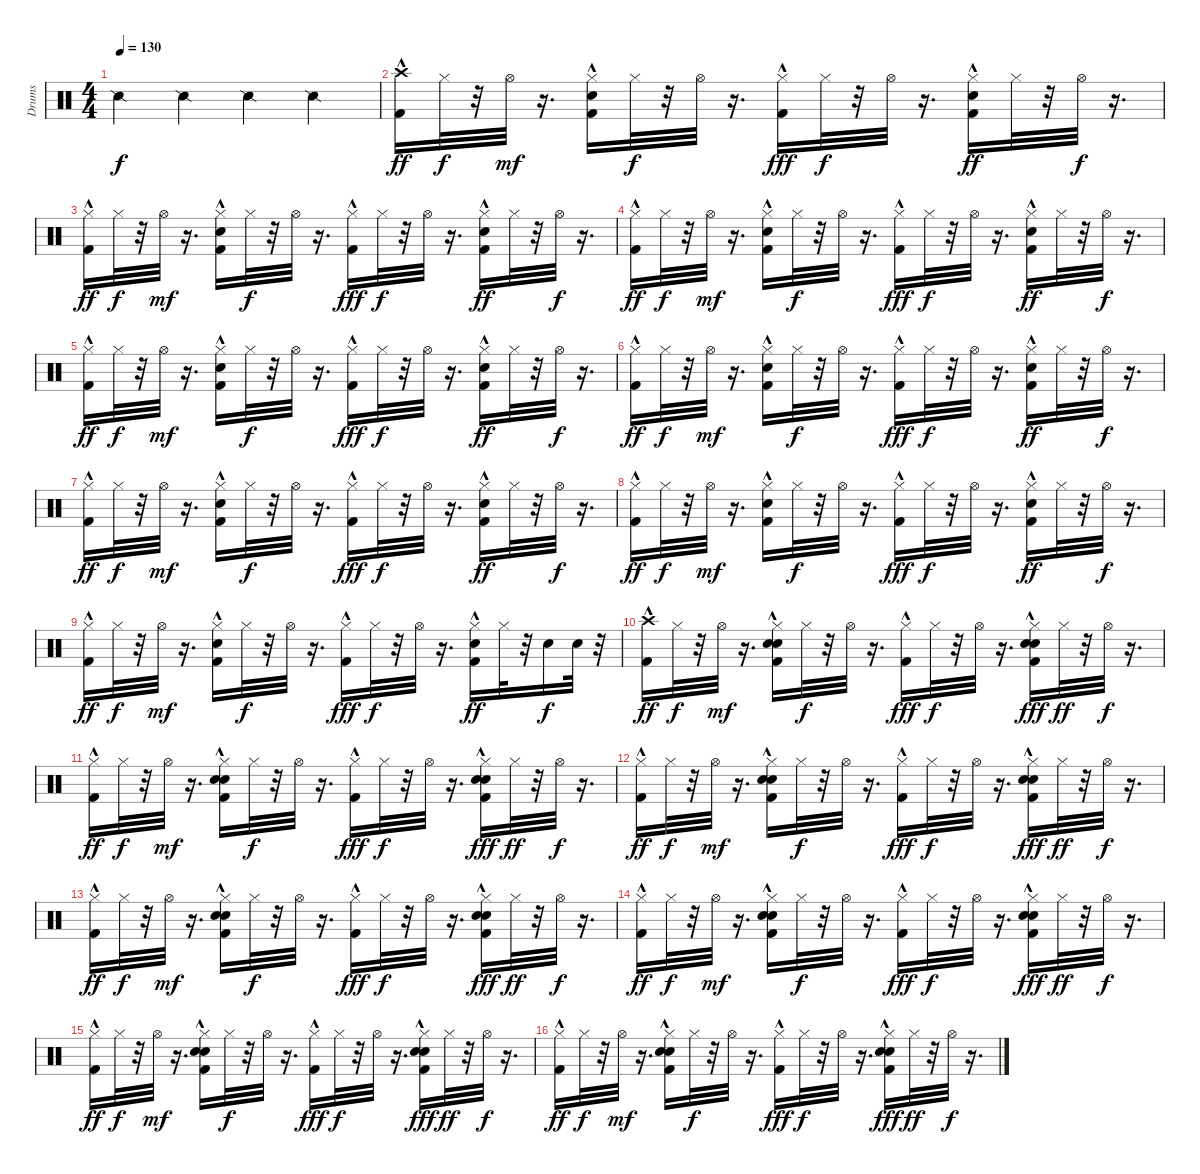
\track ("Drums" "Drums") {instrument percussion}
\staff {score}
\articulation defaults
\ts (4 4)
\tempo 130
\clef neutral
\ks c "Snare (side stick) 2".4{dy f} "Snare (side stick) 2".4 "Snare (side stick) 2".4 "Snare (side stick) 2".4
|
("Kick (hit) 2"{hac} "Crash high (hit)").16{dy ff} "Hi-Hat (closed)".32{dy f} r.32 "Hi-Hat (open)".32{dy mf} r.16{d} ("Kick (hit) 2"{hac} "Electric Snare (hit)" "Hi-Hat (closed)").16 "Hi-Hat (closed)".32{dy f} r.32 "Hi-Hat (open)".32 r.16{d} ("Kick (hit) 2"{hac} "Hi-Hat (closed)").16{dy fff} "Hi-Hat (closed)".32{dy f} r.32 "Hi-Hat (open)".32 r.16{d} ("Kick (hit) 2"{hac} "Electric Snare (hit)" "Hi-Hat (closed)").16{dy ff} "Hi-Hat (closed)".32 r.32 "Hi-Hat (open)".32{dy f} r.16{d} |
("Kick (hit) 2"{hac} "Hi-Hat (closed)").16{dy ff} "Hi-Hat (closed)".32{dy f} r.32 "Hi-Hat (open)".32{dy mf} r.16{d} ("Kick (hit) 2"{hac} "Electric Snare (hit)" "Hi-Hat (closed)").16 "Hi-Hat (closed)".32{dy f} r.32 "Hi-Hat (open)".32 r.16{d} ("Kick (hit) 2"{hac} "Hi-Hat (closed)").16{dy fff} "Hi-Hat (closed)".32{dy f} r.32 "Hi-Hat (open)".32 r.16{d} ("Kick (hit) 2"{hac} "Electric Snare (hit)" "Hi-Hat (closed)").16{dy ff} "Hi-Hat (closed)".32 r.32 "Hi-Hat (open)".32{dy f} r.16{d} |
("Kick (hit) 2"{hac} "Hi-Hat (closed)").16{dy ff} "Hi-Hat (closed)".32{dy f} r.32 "Hi-Hat (open)".32{dy mf} r.16{d} ("Kick (hit) 2"{hac} "Electric Snare (hit)" "Hi-Hat (closed)").16 "Hi-Hat (closed)".32{dy f} r.32 "Hi-Hat (open)".32 r.16{d} ("Kick (hit) 2"{hac} "Hi-Hat (closed)").16{dy fff} "Hi-Hat (closed)".32{dy f} r.32 "Hi-Hat (open)".32 r.16{d} ("Kick (hit) 2"{hac} "Electric Snare (hit)" "Hi-Hat (closed)").16{dy ff} "Hi-Hat (closed)".32 r.32 "Hi-Hat (open)".32{dy f} r.16{d} |
("Kick (hit) 2"{hac} "Hi-Hat (closed)").16{dy ff} "Hi-Hat (closed)".32{dy f} r.32 "Hi-Hat (open)".32{dy mf} r.16{d} ("Kick (hit) 2"{hac} "Electric Snare (hit)" "Hi-Hat (closed)").16 "Hi-Hat (closed)".32{dy f} r.32 "Hi-Hat (open)".32 r.16{d} ("Kick (hit) 2"{hac} "Hi-Hat (closed)").16{dy fff} "Hi-Hat (closed)".32{dy f} r.32 "Hi-Hat (open)".32 r.16{d} ("Kick (hit) 2"{hac} "Electric Snare (hit)" "Hi-Hat (closed)").16{dy ff} "Hi-Hat (closed)".32 r.32 "Hi-Hat (open)".32{dy f} r.16{d} |
("Kick (hit) 2"{hac} "Hi-Hat (closed)").16{dy ff} "Hi-Hat (closed)".32{dy f} r.32 "Hi-Hat (open)".32{dy mf} r.16{d} ("Kick (hit) 2"{hac} "Electric Snare (hit)" "Hi-Hat (closed)").16 "Hi-Hat (closed)".32{dy f} r.32 "Hi-Hat (open)".32 r.16{d} ("Kick (hit) 2"{hac} "Hi-Hat (closed)").16{dy fff} "Hi-Hat (closed)".32{dy f} r.32 "Hi-Hat (open)".32 r.16{d} ("Kick (hit) 2"{hac} "Electric Snare (hit)" "Hi-Hat (closed)").16{dy ff} "Hi-Hat (closed)".32 r.32 "Hi-Hat (open)".32{dy f} r.16{d} |
("Kick (hit) 2"{hac} "Hi-Hat (closed)").16{dy ff} "Hi-Hat (closed)".32{dy f} r.32 "Hi-Hat (open)".32{dy mf} r.16{d} ("Kick (hit) 2"{hac} "Electric Snare (hit)" "Hi-Hat (closed)").16 "Hi-Hat (closed)".32{dy f} r.32 "Hi-Hat (open)".32 r.16{d} ("Kick (hit) 2"{hac} "Hi-Hat (closed)").16{dy fff} "Hi-Hat (closed)".32{dy f} r.32 "Hi-Hat (open)".32 r.16{d} ("Kick (hit) 2"{hac} "Electric Snare (hit)" "Hi-Hat (closed)").16{dy ff} "Hi-Hat (closed)".32 r.32 "Hi-Hat (open)".32{dy f} r.16{d} |
("Kick (hit) 2"{hac} "Hi-Hat (closed)").16{dy ff} "Hi-Hat (closed)".32{dy f} r.32 "Hi-Hat (open)".32{dy mf} r.16{d} ("Kick (hit) 2"{hac} "Electric Snare (hit)" "Hi-Hat (closed)").16 "Hi-Hat (closed)".32{dy f} r.32 "Hi-Hat (open)".32 r.16{d} ("Kick (hit) 2"{hac} "Hi-Hat (closed)").16{dy fff} "Hi-Hat (closed)".32{dy f} r.32 "Hi-Hat (open)".32 r.16{d} ("Kick (hit) 2"{hac} "Electric Snare (hit)" "Hi-Hat (closed)").16{dy ff} "Hi-Hat (closed)".32 r.32 "Hi-Hat (open)".32{dy f} r.16{d} |
("Kick (hit) 2"{hac} "Hi-Hat (closed)").16{dy ff} "Hi-Hat (closed)".32{dy f} r.32 "Hi-Hat (open)".32{dy mf} r.16{d} ("Kick (hit) 2"{hac} "Electric Snare (hit)" "Hi-Hat (closed)").16 "Hi-Hat (closed)".32{dy f} r.32 "Hi-Hat (open)".32 r.16{d} ("Kick (hit) 2"{hac} "Hi-Hat (closed)").16{dy fff} "Hi-Hat (closed)".32{dy f} r.32 "Hi-Hat (open)".32 r.16{d} ("Kick (hit) 2"{hac} "Electric Snare (hit)" "Hi-Hat (closed)").16{dy ff} "Hi-Hat (closed)".32 r.32 "Electric Snare (hit)".16{dy f} "Electric Snare (hit)".32 r.32 |
("Kick (hit) 2"{hac} "Crash high (hit)").16{dy ff} "Hi-Hat (closed)".32{dy f} r.32 "Hi-Hat (open)".32{dy mf} r.16{d} ("Kick (hit) 2"{hac} "Hand Clap (hit)" "Electric Snare (hit)" "Hi-Hat (closed)").16 "Hi-Hat (closed)".32{dy f} r.32 "Hi-Hat (open)".32 r.16{d} ("Kick (hit) 2"{hac} "Hi-Hat (closed)").16{dy fff} "Hi-Hat (closed)".32{dy f} r.32 "Hi-Hat (open)".32 r.16{d} ("Kick (hit) 2"{hac} "Hand Clap (hit)" "Electric Snare (hit)" "Hi-Hat (closed)").16{dy fff} "Hi-Hat (closed)".32{dy ff} r.32 "Hi-Hat (open)".32{dy f} r.16{d} |
("Kick (hit) 2"{hac} "Hi-Hat (closed)").16{dy ff} "Hi-Hat (closed)".32{dy f} r.32 "Hi-Hat (open)".32{dy mf} r.16{d} ("Kick (hit) 2"{hac} "Hand Clap (hit)" "Electric Snare (hit)" "Hi-Hat (closed)").16 "Hi-Hat (closed)".32{dy f} r.32 "Hi-Hat (open)".32 r.16{d} ("Kick (hit) 2"{hac} "Hi-Hat (closed)").16{dy fff} "Hi-Hat (closed)".32{dy f} r.32 "Hi-Hat (open)".32 r.16{d} ("Kick (hit) 2"{hac} "Hand Clap (hit)" "Electric Snare (hit)" "Hi-Hat (closed)").16{dy fff} "Hi-Hat (closed)".32{dy ff} r.32 "Hi-Hat (open)".32{dy f} r.16{d} |
("Kick (hit) 2"{hac} "Hi-Hat (closed)").16{dy ff} "Hi-Hat (closed)".32{dy f} r.32 "Hi-Hat (open)".32{dy mf} r.16{d} ("Kick (hit) 2"{hac} "Hand Clap (hit)" "Electric Snare (hit)" "Hi-Hat (closed)").16 "Hi-Hat (closed)".32{dy f} r.32 "Hi-Hat (open)".32 r.16{d} ("Kick (hit) 2"{hac} "Hi-Hat (closed)").16{dy fff} "Hi-Hat (closed)".32{dy f} r.32 "Hi-Hat (open)".32 r.16{d} ("Kick (hit) 2"{hac} "Hand Clap (hit)" "Electric Snare (hit)" "Hi-Hat (closed)").16{dy fff} "Hi-Hat (closed)".32{dy ff} r.32 "Hi-Hat (open)".32{dy f} r.16{d} |
("Kick (hit) 2"{hac} "Hi-Hat (closed)").16{dy ff} "Hi-Hat (closed)".32{dy f} r.32 "Hi-Hat (open)".32{dy mf} r.16{d} ("Kick (hit) 2"{hac} "Hand Clap (hit)" "Electric Snare (hit)" "Hi-Hat (closed)").16 "Hi-Hat (closed)".32{dy f} r.32 "Hi-Hat (open)".32 r.16{d} ("Kick (hit) 2"{hac} "Hi-Hat (closed)").16{dy fff} "Hi-Hat (closed)".32{dy f} r.32 "Hi-Hat (open)".32 r.16{d} ("Kick (hit) 2"{hac} "Hand Clap (hit)" "Electric Snare (hit)" "Hi-Hat (closed)").16{dy fff} "Hi-Hat (closed)".32{dy ff} r.32 "Hi-Hat (open)".32{dy f} r.16{d} |
("Kick (hit) 2"{hac} "Hi-Hat (closed)").16{dy ff} "Hi-Hat (closed)".32{dy f} r.32 "Hi-Hat (open)".32{dy mf} r.16{d} ("Kick (hit) 2"{hac} "Hand Clap (hit)" "Electric Snare (hit)" "Hi-Hat (closed)").16 "Hi-Hat (closed)".32{dy f} r.32 "Hi-Hat (open)".32 r.16{d} ("Kick (hit) 2"{hac} "Hi-Hat (closed)").16{dy fff} "Hi-Hat (closed)".32{dy f} r.32 "Hi-Hat (open)".32 r.16{d} ("Kick (hit) 2"{hac} "Hand Clap (hit)" "Electric Snare (hit)" "Hi-Hat (closed)").16{dy fff} "Hi-Hat (closed)".32{dy ff} r.32 "Hi-Hat (open)".32{dy f} r.16{d} |
("Kick (hit) 2"{hac} "Hi-Hat (closed)").16{dy ff} "Hi-Hat (closed)".32{dy f} r.32 "Hi-Hat (open)".32{dy mf} r.16{d} ("Kick (hit) 2"{hac} "Hand Clap (hit)" "Electric Snare (hit)" "Hi-Hat (closed)").16 "Hi-Hat (closed)".32{dy f} r.32 "Hi-Hat (open)".32 r.16{d} ("Kick (hit) 2"{hac} "Hi-Hat (closed)").16{dy fff} "Hi-Hat (closed)".32{dy f} r.32 "Hi-Hat (open)".32 r.16{d} ("Kick (hit) 2"{hac} "Hand Clap (hit)" "Electric Snare (hit)" "Hi-Hat (closed)").16{dy fff} "Hi-Hat (closed)".32{dy ff} r.32 "Hi-Hat (open)".32{dy f} r.16{d} |
("Kick (hit) 2"{hac} "Hi-Hat (closed)").16{dy ff} "Hi-Hat (closed)".32{dy f} r.32 "Hi-Hat (open)".32{dy mf} r.16{d} ("Kick (hit) 2"{hac} "Hand Clap (hit)" "Electric Snare (hit)" "Hi-Hat (closed)").16 "Hi-Hat (closed)".32{dy f} r.32 "Hi-Hat (open)".32 r.16{d} ("Kick (hit) 2"{hac} "Hi-Hat (closed)").16{dy fff} "Hi-Hat (closed)".32{dy f} r.32 "Hi-Hat (open)".32 r.16{d} ("Kick (hit) 2"{hac} "Hand Clap (hit)" "Electric Snare (hit)" "Hi-Hat (closed)").16{dy fff} "Hi-Hat (closed)".32{dy ff} r.32 "Hi-Hat (open)".32{dy f} r.16{d}
